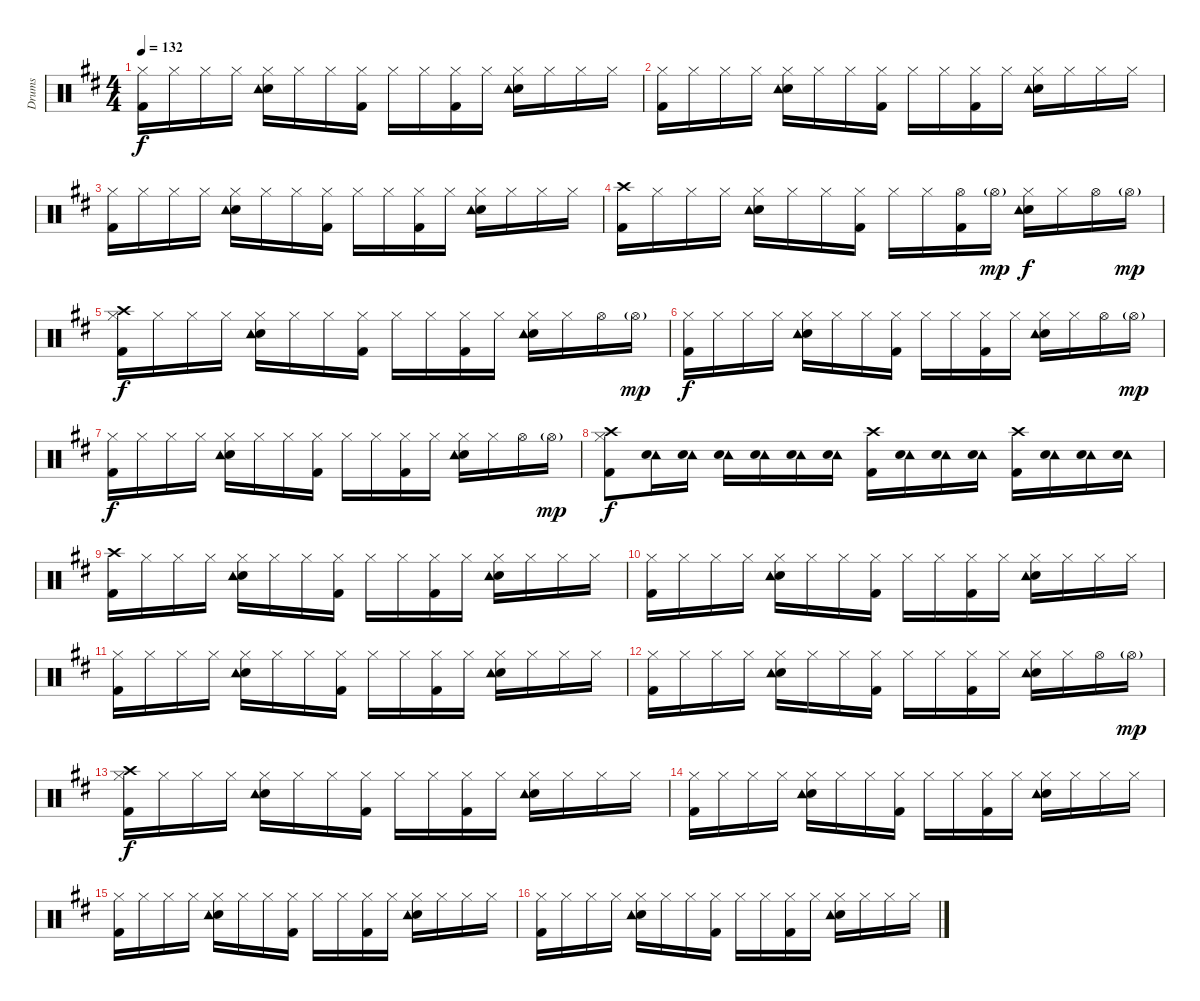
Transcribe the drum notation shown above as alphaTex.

\track ("Drums" "Drums") {instrument percussion}
\staff {score}
\articulation defaults
\ts (4 4)
\tempo 132
\clef neutral
\ks d
("Hi-Hat (closed)" "Kick (hit) 2").16{dy f} "Hi-Hat (closed)".16 "Hi-Hat (closed)".16 "Hi-Hat (closed)".16 ("Hi-Hat (closed)" "Electric Snare (hit)" "Tambourine (hit)").16 "Hi-Hat (closed)".16 "Hi-Hat (closed)".16 ("Hi-Hat (closed)" "Kick (hit) 2").16 "Hi-Hat (closed)".16 "Hi-Hat (closed)".16 ("Hi-Hat (closed)" "Kick (hit) 2").16 "Hi-Hat (closed)".16 ("Hi-Hat (closed)" "Electric Snare (hit)" "Tambourine (hit)").16 "Hi-Hat (closed)".16 "Hi-Hat (closed)".16 "Hi-Hat (closed)".16 |
("Hi-Hat (closed)" "Kick (hit) 2").16 "Hi-Hat (closed)".16 "Hi-Hat (closed)".16 "Hi-Hat (closed)".16 ("Hi-Hat (closed)" "Electric Snare (hit)" "Tambourine (hit)").16 "Hi-Hat (closed)".16 "Hi-Hat (closed)".16 ("Hi-Hat (closed)" "Kick (hit) 2").16 "Hi-Hat (closed)".16 "Hi-Hat (closed)".16 ("Hi-Hat (closed)" "Kick (hit) 2").16 "Hi-Hat (closed)".16 ("Hi-Hat (closed)" "Electric Snare (hit)" "Tambourine (hit)").16 "Hi-Hat (closed)".16 "Hi-Hat (closed)".16 "Hi-Hat (closed)".16 |
("Hi-Hat (closed)" "Kick (hit) 2").16 "Hi-Hat (closed)".16 "Hi-Hat (closed)".16 "Hi-Hat (closed)".16 ("Hi-Hat (closed)" "Electric Snare (hit)" "Tambourine (hit)").16 "Hi-Hat (closed)".16 "Hi-Hat (closed)".16 ("Hi-Hat (closed)" "Kick (hit) 2").16 "Hi-Hat (closed)".16 "Hi-Hat (closed)".16 ("Hi-Hat (closed)" "Kick (hit) 2").16 "Hi-Hat (closed)".16 ("Hi-Hat (closed)" "Electric Snare (hit)" "Tambourine (hit)").16 "Hi-Hat (closed)".16 "Hi-Hat (closed)".16 "Hi-Hat (closed)".16 |
("Crash high (hit)" "Kick (hit) 2").16 "Hi-Hat (closed)".16 "Hi-Hat (closed)".16 "Hi-Hat (closed)".16 ("Hi-Hat (closed)" "Electric Snare (hit)" "Tambourine (hit)").16 "Hi-Hat (closed)".16 "Hi-Hat (closed)".16 ("Hi-Hat (closed)" "Kick (hit) 2").16 "Hi-Hat (closed)".16 "Hi-Hat (closed)".16 ("Hi-Hat (open)" "Kick (hit) 2").16 "Hi-Hat (open)"{g}.16{dy mp} ("Hi-Hat (closed)" "Electric Snare (hit)" "Tambourine (hit)").16{dy f} "Hi-Hat (closed)".16 "Hi-Hat (open)".16 "Hi-Hat (open)"{g}.16{dy mp} |
("Crash high (hit)" "Hi-Hat (closed)" "Kick (hit) 2").16{dy f} "Hi-Hat (closed)".16 "Hi-Hat (closed)".16 "Hi-Hat (closed)".16 ("Hi-Hat (closed)" "Electric Snare (hit)" "Tambourine (hit)").16 "Hi-Hat (closed)".16 "Hi-Hat (closed)".16 ("Hi-Hat (closed)" "Kick (hit) 2").16 "Hi-Hat (closed)".16 "Hi-Hat (closed)".16 ("Hi-Hat (closed)" "Kick (hit) 2").16 "Hi-Hat (closed)".16 ("Hi-Hat (closed)" "Electric Snare (hit)" "Tambourine (hit)").16 "Hi-Hat (closed)".16 "Hi-Hat (open)".16 "Hi-Hat (open)"{g}.16{dy mp} |
("Hi-Hat (closed)" "Kick (hit) 2").16{dy f} "Hi-Hat (closed)".16 "Hi-Hat (closed)".16 "Hi-Hat (closed)".16 ("Hi-Hat (closed)" "Electric Snare (hit)" "Tambourine (hit)").16 "Hi-Hat (closed)".16 "Hi-Hat (closed)".16 ("Hi-Hat (closed)" "Kick (hit) 2").16 "Hi-Hat (closed)".16 "Hi-Hat (closed)".16 ("Hi-Hat (closed)" "Kick (hit) 2").16 "Hi-Hat (closed)".16 ("Hi-Hat (closed)" "Electric Snare (hit)" "Tambourine (hit)").16 "Hi-Hat (closed)".16 "Hi-Hat (open)".16 "Hi-Hat (open)"{g}.16{dy mp} |
("Hi-Hat (closed)" "Kick (hit) 2").16{dy f} "Hi-Hat (closed)".16 "Hi-Hat (closed)".16 "Hi-Hat (closed)".16 ("Hi-Hat (closed)" "Electric Snare (hit)" "Tambourine (hit)").16 "Hi-Hat (closed)".16 "Hi-Hat (closed)".16 ("Hi-Hat (closed)" "Kick (hit) 2").16 "Hi-Hat (closed)".16 "Hi-Hat (closed)".16 ("Hi-Hat (closed)" "Kick (hit) 2").16 "Hi-Hat (closed)".16 ("Hi-Hat (closed)" "Electric Snare (hit)" "Tambourine (hit)").16 "Hi-Hat (closed)".16 "Hi-Hat (open)".16 "Hi-Hat (open)"{g}.16{dy mp} |
("Crash high (hit)" "Hi-Hat (closed)" "Kick (hit) 2").8{dy f} ("Tambourine (hit)" "Electric Snare (hit)").16 ("Tambourine (hit)" "Electric Snare (hit)").16 ("Tambourine (hit)" "Electric Snare (hit)").16 ("Tambourine (hit)" "Electric Snare (hit)").16 ("Tambourine (hit)" "Electric Snare (hit)").16 ("Tambourine (hit)" "Electric Snare (hit)").16 ("Crash high (hit)" "Kick (hit) 2").16 ("Tambourine (hit)" "Electric Snare (hit)").16 ("Tambourine (hit)" "Electric Snare (hit)").16 ("Tambourine (hit)" "Electric Snare (hit)").16 ("Crash high (hit)" "Kick (hit) 2").16 ("Tambourine (hit)" "Electric Snare (hit)").16 ("Tambourine (hit)" "Electric Snare (hit)").16 ("Tambourine (hit)" "Electric Snare (hit)").16 |
("Crash high (hit)" "Kick (hit) 2").16 "Hi-Hat (closed)".16 "Hi-Hat (closed)".16 "Hi-Hat (closed)".16 ("Hi-Hat (closed)" "Electric Snare (hit)" "Tambourine (hit)").16 "Hi-Hat (closed)".16 "Hi-Hat (closed)".16 ("Hi-Hat (closed)" "Kick (hit) 2").16 "Hi-Hat (closed)".16 "Hi-Hat (closed)".16 ("Hi-Hat (closed)" "Kick (hit) 2").16 "Hi-Hat (closed)".16 ("Hi-Hat (closed)" "Electric Snare (hit)" "Tambourine (hit)").16 "Hi-Hat (closed)".16 "Hi-Hat (closed)".16 "Hi-Hat (closed)".16 |
("Hi-Hat (closed)" "Kick (hit) 2").16 "Hi-Hat (closed)".16 "Hi-Hat (closed)".16 "Hi-Hat (closed)".16 ("Hi-Hat (closed)" "Electric Snare (hit)" "Tambourine (hit)").16 "Hi-Hat (closed)".16 "Hi-Hat (closed)".16 ("Hi-Hat (closed)" "Kick (hit) 2").16 "Hi-Hat (closed)".16 "Hi-Hat (closed)".16 ("Hi-Hat (closed)" "Kick (hit) 2").16 "Hi-Hat (closed)".16 ("Hi-Hat (closed)" "Electric Snare (hit)" "Tambourine (hit)").16 "Hi-Hat (closed)".16 "Hi-Hat (closed)".16 "Hi-Hat (closed)".16 |
("Hi-Hat (closed)" "Kick (hit) 2").16 "Hi-Hat (closed)".16 "Hi-Hat (closed)".16 "Hi-Hat (closed)".16 ("Hi-Hat (closed)" "Electric Snare (hit)" "Tambourine (hit)").16 "Hi-Hat (closed)".16 "Hi-Hat (closed)".16 ("Hi-Hat (closed)" "Kick (hit) 2").16 "Hi-Hat (closed)".16 "Hi-Hat (closed)".16 ("Hi-Hat (closed)" "Kick (hit) 2").16 "Hi-Hat (closed)".16 ("Hi-Hat (closed)" "Electric Snare (hit)" "Tambourine (hit)").16 "Hi-Hat (closed)".16 "Hi-Hat (closed)".16 "Hi-Hat (closed)".16 |
("Hi-Hat (closed)" "Kick (hit) 2").16 "Hi-Hat (closed)".16 "Hi-Hat (closed)".16 "Hi-Hat (closed)".16 ("Hi-Hat (closed)" "Electric Snare (hit)" "Tambourine (hit)").16 "Hi-Hat (closed)".16 "Hi-Hat (closed)".16 ("Hi-Hat (closed)" "Kick (hit) 2").16 "Hi-Hat (closed)".16 "Hi-Hat (closed)".16 ("Hi-Hat (closed)" "Kick (hit) 2").16 "Hi-Hat (closed)".16 ("Hi-Hat (closed)" "Electric Snare (hit)" "Tambourine (hit)").16 "Hi-Hat (closed)".16 "Hi-Hat (open)".16 "Hi-Hat (open)"{g}.16{dy mp} |
("Crash high (hit)" "Hi-Hat (closed)" "Kick (hit) 2").16{dy f} "Hi-Hat (closed)".16 "Hi-Hat (closed)".16 "Hi-Hat (closed)".16 ("Hi-Hat (closed)" "Electric Snare (hit)" "Tambourine (hit)").16 "Hi-Hat (closed)".16 "Hi-Hat (closed)".16 ("Hi-Hat (closed)" "Kick (hit) 2").16 "Hi-Hat (closed)".16 "Hi-Hat (closed)".16 ("Hi-Hat (closed)" "Kick (hit) 2").16 "Hi-Hat (closed)".16 ("Hi-Hat (closed)" "Electric Snare (hit)" "Tambourine (hit)").16 "Hi-Hat (closed)".16 "Hi-Hat (closed)".16 "Hi-Hat (closed)".16 |
("Hi-Hat (closed)" "Kick (hit) 2").16 "Hi-Hat (closed)".16 "Hi-Hat (closed)".16 "Hi-Hat (closed)".16 ("Hi-Hat (closed)" "Electric Snare (hit)" "Tambourine (hit)").16 "Hi-Hat (closed)".16 "Hi-Hat (closed)".16 ("Hi-Hat (closed)" "Kick (hit) 2").16 "Hi-Hat (closed)".16 "Hi-Hat (closed)".16 ("Hi-Hat (closed)" "Kick (hit) 2").16 "Hi-Hat (closed)".16 ("Hi-Hat (closed)" "Electric Snare (hit)" "Tambourine (hit)").16 "Hi-Hat (closed)".16 "Hi-Hat (closed)".16 "Hi-Hat (closed)".16 |
("Hi-Hat (closed)" "Kick (hit) 2").16 "Hi-Hat (closed)".16 "Hi-Hat (closed)".16 "Hi-Hat (closed)".16 ("Hi-Hat (closed)" "Electric Snare (hit)" "Tambourine (hit)").16 "Hi-Hat (closed)".16 "Hi-Hat (closed)".16 ("Hi-Hat (closed)" "Kick (hit) 2").16 "Hi-Hat (closed)".16 "Hi-Hat (closed)".16 ("Hi-Hat (closed)" "Kick (hit) 2").16 "Hi-Hat (closed)".16 ("Hi-Hat (closed)" "Electric Snare (hit)" "Tambourine (hit)").16 "Hi-Hat (closed)".16 "Hi-Hat (closed)".16 "Hi-Hat (closed)".16 |
("Hi-Hat (closed)" "Kick (hit) 2").16 "Hi-Hat (closed)".16 "Hi-Hat (closed)".16 "Hi-Hat (closed)".16 ("Hi-Hat (closed)" "Electric Snare (hit)" "Tambourine (hit)").16 "Hi-Hat (closed)".16 "Hi-Hat (closed)".16 ("Hi-Hat (closed)" "Kick (hit) 2").16 "Hi-Hat (closed)".16 "Hi-Hat (closed)".16 ("Hi-Hat (closed)" "Kick (hit) 2").16 "Hi-Hat (closed)".16 ("Hi-Hat (closed)" "Electric Snare (hit)" "Tambourine (hit)").16 "Hi-Hat (closed)".16 "Hi-Hat (closed)".16 "Hi-Hat (closed)".16
